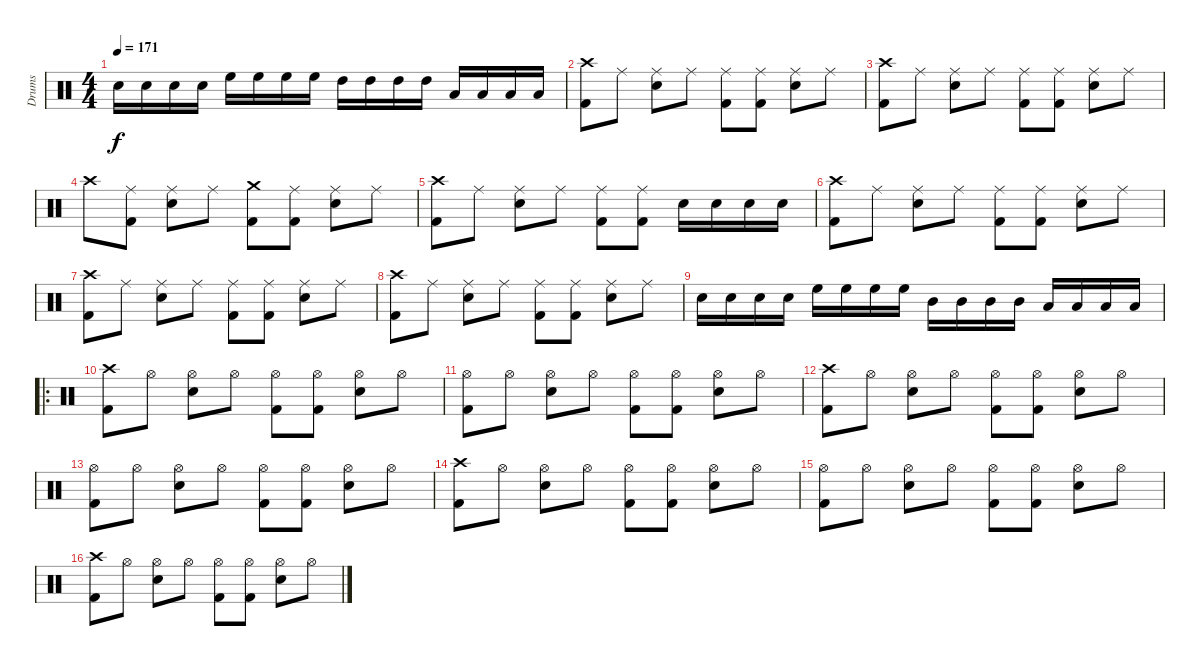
\track ("Drums" "Drums") {instrument percussion}
\staff {score}
\articulation defaults
\ts (4 4)
\tempo 171
\clef neutral
\ks c "Electric Snare (hit)".16{dy f} "Electric Snare (hit)".16 "Electric Snare (hit)".16 "Electric Snare (hit)".16 "High Floor Tom (hit)".16 "High Floor Tom (hit)".16 "High Floor Tom (hit)".16 "High Floor Tom (hit)".16 "High Tom (hit)".16 "High Tom (hit)".16 "High Tom (hit)".16 "High Tom (hit)".16 "Low Tom (hit)".16 "Low Tom (hit)".16 "Low Tom (hit)".16 "Low Tom (hit)".16
|
("Crash high (hit)" "Kick (hit) 2").8 "Ride (middle)".8 ("Ride (middle)" "Electric Snare (hit)").8 "Ride (middle)".8 ("Ride (middle)" "Kick (hit) 2").8 ("Ride (middle)" "Kick (hit) 2").8 ("Ride (middle)" "Electric Snare (hit)").8 "Ride (middle)".8 |
("Crash high (hit)" "Kick (hit) 2").8 "Ride (middle)".8 ("Ride (middle)" "Electric Snare (hit)").8 "Ride (middle)".8 ("Ride (middle)" "Kick (hit) 2").8 ("Ride (middle)" "Kick (hit) 2").8 ("Ride (middle)" "Electric Snare (hit)").8 "Ride (middle)".8 |
"Crash high (hit)".8 ("Ride (middle)" "Kick (hit) 2").8 ("Ride (middle)" "Electric Snare (hit)").8 "Ride (middle)".8 ("Crash medium (hit)" "Kick (hit) 2").8 ("Ride (middle)" "Kick (hit) 2").8 ("Ride (middle)" "Electric Snare (hit)").8 "Ride (middle)".8 |
("Crash high (hit)" "Kick (hit) 2").8 "Ride (middle)".8 ("Ride (middle)" "Electric Snare (hit)").8 "Ride (middle)".8 ("Ride (middle)" "Kick (hit) 2").8 ("Ride (middle)" "Kick (hit) 2").8 "Electric Snare (hit)".16 "Electric Snare (hit)".16 "Electric Snare (hit)".16 "Electric Snare (hit)".16 |
("Crash high (hit)" "Kick (hit) 2").8 "Ride (middle)".8 ("Ride (middle)" "Electric Snare (hit)").8 "Ride (middle)".8 ("Ride (middle)" "Kick (hit) 2").8 ("Ride (middle)" "Kick (hit) 2").8 ("Ride (middle)" "Electric Snare (hit)").8 "Ride (middle)".8 |
("Crash high (hit)" "Kick (hit) 2").8 "Ride (middle)".8 ("Ride (middle)" "Electric Snare (hit)").8 "Ride (middle)".8 ("Ride (middle)" "Kick (hit) 2").8 ("Ride (middle)" "Kick (hit) 2").8 ("Ride (middle)" "Electric Snare (hit)").8 "Ride (middle)".8 |
("Crash high (hit)" "Kick (hit) 2").8 "Ride (middle)".8 ("Ride (middle)" "Electric Snare (hit)").8 "Ride (middle)".8 ("Ride (middle)" "Kick (hit) 2").8 ("Ride (middle)" "Kick (hit) 2").8 ("Ride (middle)" "Electric Snare (hit)").8 "Ride (middle)".8 |
"Electric Snare (hit)".16 "Electric Snare (hit)".16 "Electric Snare (hit)".16 "Electric Snare (hit)".16 "High Floor Tom (hit)".16 "High Floor Tom (hit)".16 "High Floor Tom (hit)".16 "High Floor Tom (hit)".16 "Mid Tom (hit)".16 "Mid Tom (hit)".16 "Mid Tom (hit)".16 "Mid Tom (hit)".16 "Low Tom (hit)".16 "Low Tom (hit)".16 "Low Tom (hit)".16 "Low Tom (hit)".16 |
\ro
("Crash high (hit)" "Kick (hit) 2").8 "Hi-Hat (open)".8 ("Hi-Hat (open)" "Electric Snare (hit)").8 "Hi-Hat (open)".8 ("Hi-Hat (open)" "Kick (hit) 2").8 ("Hi-Hat (open)" "Kick (hit) 2").8 ("Hi-Hat (open)" "Electric Snare (hit)").8 "Hi-Hat (open)".8 |
("Hi-Hat (open)" "Kick (hit) 2").8 "Hi-Hat (open)".8 ("Hi-Hat (open)" "Electric Snare (hit)").8 "Hi-Hat (open)".8 ("Hi-Hat (open)" "Kick (hit) 2").8 ("Hi-Hat (open)" "Kick (hit) 2").8 ("Hi-Hat (open)" "Electric Snare (hit)").8 "Hi-Hat (open)".8 |
("Crash high (hit)" "Kick (hit) 2").8 "Hi-Hat (open)".8 ("Hi-Hat (open)" "Electric Snare (hit)").8 "Hi-Hat (open)".8 ("Hi-Hat (open)" "Kick (hit) 2").8 ("Hi-Hat (open)" "Kick (hit) 2").8 ("Hi-Hat (open)" "Electric Snare (hit)").8 "Hi-Hat (open)".8 |
("Hi-Hat (open)" "Kick (hit) 2").8 "Hi-Hat (open)".8 ("Hi-Hat (open)" "Electric Snare (hit)").8 "Hi-Hat (open)".8 ("Hi-Hat (open)" "Kick (hit) 2").8 ("Hi-Hat (open)" "Kick (hit) 2").8 ("Hi-Hat (open)" "Electric Snare (hit)").8 "Hi-Hat (open)".8 |
("Crash high (hit)" "Kick (hit) 2").8 "Hi-Hat (open)".8 ("Hi-Hat (open)" "Electric Snare (hit)").8 "Hi-Hat (open)".8 ("Hi-Hat (open)" "Kick (hit) 2").8 ("Hi-Hat (open)" "Kick (hit) 2").8 ("Hi-Hat (open)" "Electric Snare (hit)").8 "Hi-Hat (open)".8 |
("Hi-Hat (open)" "Kick (hit) 2").8 "Hi-Hat (open)".8 ("Hi-Hat (open)" "Electric Snare (hit)").8 "Hi-Hat (open)".8 ("Hi-Hat (open)" "Kick (hit) 2").8 ("Hi-Hat (open)" "Kick (hit) 2").8 ("Hi-Hat (open)" "Electric Snare (hit)").8 "Hi-Hat (open)".8 |
("Crash high (hit)" "Kick (hit) 2").8 "Hi-Hat (open)".8 ("Hi-Hat (open)" "Electric Snare (hit)").8 "Hi-Hat (open)".8 ("Hi-Hat (open)" "Kick (hit) 2").8 ("Hi-Hat (open)" "Kick (hit) 2").8 ("Hi-Hat (open)" "Electric Snare (hit)").8 "Hi-Hat (open)".8
